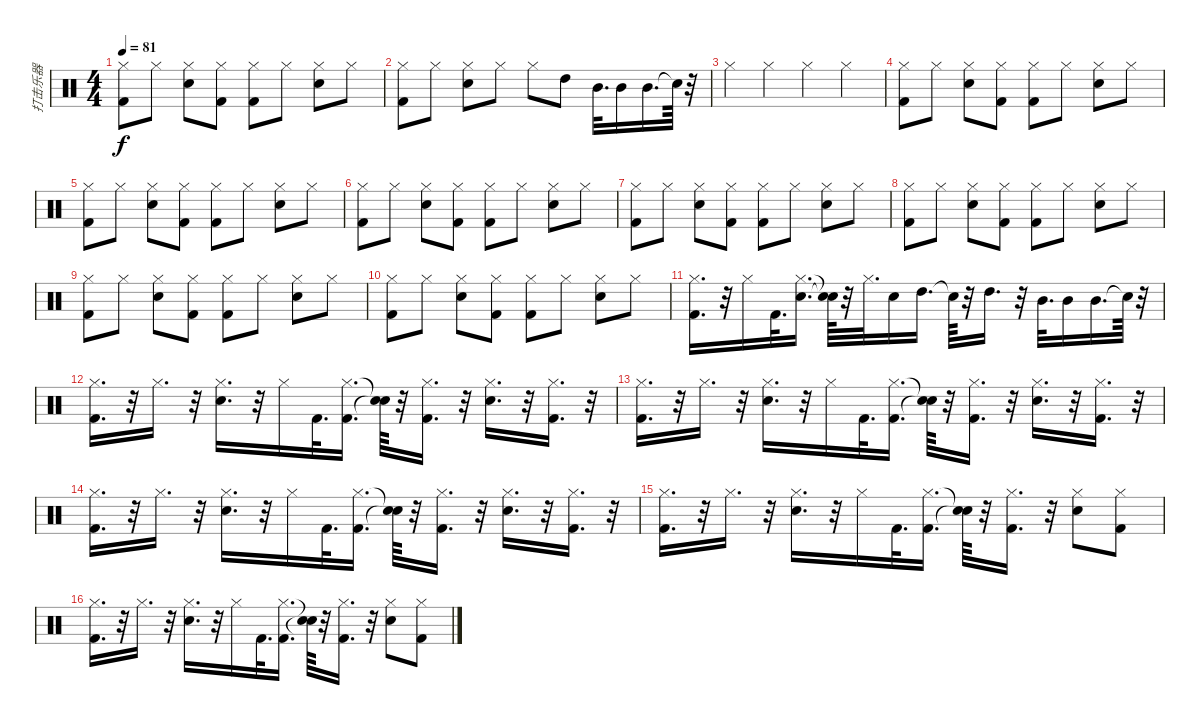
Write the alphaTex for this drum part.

\track ("打击乐器" "打击乐器") {instrument percussion}
\staff {score}
\articulation defaults
\ts (4 4)
\tempo 81
\clef neutral
\ks c
("Kick (hit) 2" "Hi-Hat (closed)").8{dy f} "Hi-Hat (closed)".8 ("Hi-Hat (closed)" "Snare (hit) 2").8 ("Hi-Hat (closed)" "Kick (hit) 2").8 ("Kick (hit) 2" "Hi-Hat (closed)").8 "Hi-Hat (closed)".8 ("Hi-Hat (closed)" "Snare (hit) 2").8 "Hi-Hat (closed)".8 |
("Kick (hit) 2" "Hi-Hat (closed)").8 "Hi-Hat (closed)".8 ("Hi-Hat (closed)" "Snare (hit) 2").8 "Hi-Hat (closed)".8 "Hi-Hat (closed)".8 "High Tom (hit)".8 "Mid Tom (hit)".32{d} "Mid Tom (hit)".16 "Mid Tom (hit)".16{d} "Snare (hit)"{t}.64 r.32 |
"Hi-Hat (closed)".4 "Hi-Hat (closed)".4 "Hi-Hat (closed)".4 "Hi-Hat (closed)".4 |
("Kick (hit) 2" "Hi-Hat (closed)").8 "Hi-Hat (closed)".8 ("Hi-Hat (closed)" "Snare (hit) 2").8 ("Hi-Hat (closed)" "Kick (hit) 2").8 ("Kick (hit) 2" "Hi-Hat (closed)").8 "Hi-Hat (closed)".8 ("Hi-Hat (closed)" "Snare (hit) 2").8 "Hi-Hat (closed)".8 |
("Kick (hit) 2" "Hi-Hat (closed)").8 "Hi-Hat (closed)".8 ("Hi-Hat (closed)" "Snare (hit) 2").8 ("Hi-Hat (closed)" "Kick (hit) 2").8 ("Kick (hit) 2" "Hi-Hat (closed)").8 "Hi-Hat (closed)".8 ("Hi-Hat (closed)" "Snare (hit) 2").8 "Hi-Hat (closed)".8 |
("Kick (hit) 2" "Hi-Hat (closed)").8 "Hi-Hat (closed)".8 ("Hi-Hat (closed)" "Snare (hit) 2").8 ("Hi-Hat (closed)" "Kick (hit) 2").8 ("Kick (hit) 2" "Hi-Hat (closed)").8 "Hi-Hat (closed)".8 ("Hi-Hat (closed)" "Snare (hit) 2").8 "Hi-Hat (closed)".8 |
("Kick (hit) 2" "Hi-Hat (closed)").8 "Hi-Hat (closed)".8 ("Hi-Hat (closed)" "Snare (hit) 2").8 ("Hi-Hat (closed)" "Kick (hit) 2").8 ("Kick (hit) 2" "Hi-Hat (closed)").8 "Hi-Hat (closed)".8 ("Hi-Hat (closed)" "Snare (hit) 2").8 "Hi-Hat (closed)".8 |
("Kick (hit) 2" "Hi-Hat (closed)").8 "Hi-Hat (closed)".8 ("Hi-Hat (closed)" "Snare (hit) 2").8 ("Hi-Hat (closed)" "Kick (hit) 2").8 ("Kick (hit) 2" "Hi-Hat (closed)").8 "Hi-Hat (closed)".8 ("Hi-Hat (closed)" "Snare (hit) 2").8 "Hi-Hat (closed)".8 |
("Kick (hit) 2" "Hi-Hat (closed)").8 "Hi-Hat (closed)".8 ("Hi-Hat (closed)" "Snare (hit) 2").8 ("Hi-Hat (closed)" "Kick (hit) 2").8 ("Kick (hit) 2" "Hi-Hat (closed)").8 "Hi-Hat (closed)".8 ("Hi-Hat (closed)" "Snare (hit) 2").8 "Hi-Hat (closed)".8 |
("Kick (hit) 2" "Hi-Hat (closed)").8 "Hi-Hat (closed)".8 ("Hi-Hat (closed)" "Snare (hit) 2").8 ("Hi-Hat (closed)" "Kick (hit) 2").8 ("Kick (hit) 2" "Hi-Hat (closed)").8 "Hi-Hat (closed)".8 ("Hi-Hat (closed)" "Snare (hit) 2").8 "Hi-Hat (closed)".8 |
("Hi-Hat (closed)" "Kick (hit) 2").16{d} r.32 "Hi-Hat (closed)".16 "Kick (hit) 2".32{d} ("Hi-Hat (closed)" "Snare (hit) 2").16{d} ("Snare (hit)"{t} "Snare (hit)"{t}).64 r.32 "Hi-Hat (closed)".32{d} "Snare (hit) 2".16 "High Tom (hit)".16{d} "Snare (hit)"{t}.64 r.32 "High Tom (hit)".16{d} r.32 "Mid Tom (hit)".32{d} "Mid Tom (hit)".16 "Mid Tom (hit)".16{d} "Snare (hit)"{t}.64 r.32 |
("Kick (hit) 2" "Hi-Hat (closed)").16{d} r.32 "Hi-Hat (closed)".16{d} r.32 ("Hi-Hat (closed)" "Snare (hit) 2").16{d} r.32 "Hi-Hat (closed)".16 "Kick (hit) 2".32{d} ("Hi-Hat (closed)" "Kick (hit) 2").16{d} ("Snare (hit)"{t} "Snare (hit)"{t}).64 r.32 ("Hi-Hat (closed)" "Kick (hit) 2").16{d} r.32 ("Hi-Hat (closed)" "Snare (hit) 2").16{d} r.32 ("Hi-Hat (closed)" "Kick (hit) 2").16{d} r.32 |
("Hi-Hat (closed)" "Kick (hit) 2").16{d} r.32 "Hi-Hat (closed)".16{d} r.32 ("Hi-Hat (closed)" "Snare (hit) 2").16{d} r.32 "Hi-Hat (closed)".16 "Kick (hit) 2".32{d} ("Hi-Hat (closed)" "Kick (hit) 2").16{d} ("Snare (hit)"{t} "Snare (hit)"{t}).64 r.32 ("Hi-Hat (closed)" "Kick (hit) 2").16{d} r.32 ("Snare (hit) 2" "Hi-Hat (closed)").16{d} r.32 ("Hi-Hat (closed)" "Kick (hit) 2").16{d} r.32 |
("Hi-Hat (closed)" "Kick (hit) 2").16{d} r.32 "Hi-Hat (closed)".16{d} r.32 ("Snare (hit) 2" "Hi-Hat (closed)").16{d} r.32 "Hi-Hat (closed)".16 "Kick (hit) 2".32{d} ("Hi-Hat (closed)" "Kick (hit) 2").16{d} ("Snare (hit)"{t} "Snare (hit)"{t}).64 r.32 ("Hi-Hat (closed)" "Kick (hit) 2").16{d} r.32 ("Hi-Hat (closed)" "Snare (hit) 2").16{d} r.32 ("Hi-Hat (closed)" "Kick (hit) 2").16{d} r.32 |
("Hi-Hat (closed)" "Kick (hit) 2").16{d} r.32 "Hi-Hat (closed)".16{d} r.32 ("Hi-Hat (closed)" "Snare (hit) 2").16{d} r.32 "Hi-Hat (closed)".16 "Kick (hit) 2".32{d} ("Hi-Hat (closed)" "Kick (hit) 2").16{d} ("Snare (hit)"{t} "Snare (hit)"{t}).64 r.32 ("Hi-Hat (closed)" "Kick (hit) 2").16{d} r.32 ("Snare (hit) 2" "Hi-Hat (closed)").8 ("Kick (hit) 2" "Hi-Hat (closed)").8 |
("Hi-Hat (closed)" "Kick (hit) 2").16{d} r.32 "Hi-Hat (closed)".16{d} r.32 ("Snare (hit) 2" "Hi-Hat (closed)").16{d} r.32 "Hi-Hat (closed)".16 "Kick (hit) 2".32{d} ("Hi-Hat (closed)" "Kick (hit) 2").16{d} ("Snare (hit)"{t} "Snare (hit)"{t}).64 r.32 ("Hi-Hat (closed)" "Kick (hit) 2").16{d} r.32 ("Snare (hit) 2" "Hi-Hat (closed)").8 ("Hi-Hat (closed)" "Kick (hit) 2").8
